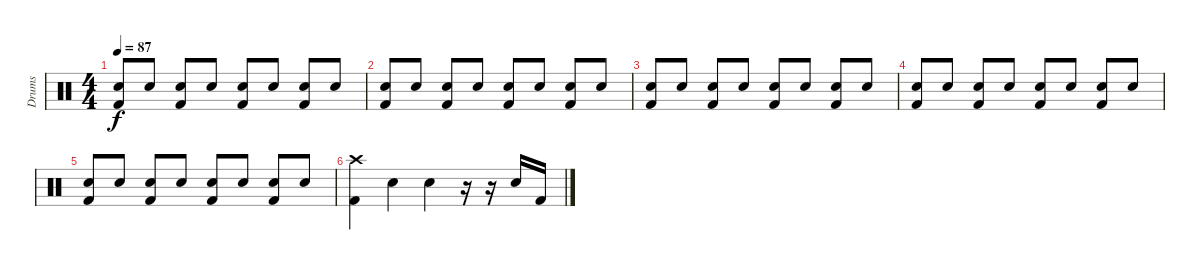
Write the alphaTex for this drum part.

\track ("Drums" "Drums") {instrument percussion}
\staff {score}
\articulation defaults
\ts (4 4)
\tempo 87
\clef neutral
\ks c
("Electric Snare (hit)" "Kick (hit) 2").8{dy f} "Electric Snare (hit)".8 ("Electric Snare (hit)" "Kick (hit) 2").8 "Electric Snare (hit)".8 ("Electric Snare (hit)" "Kick (hit) 2").8 "Electric Snare (hit)".8 ("Electric Snare (hit)" "Kick (hit) 2").8 "Electric Snare (hit)".8 |
("Electric Snare (hit)" "Kick (hit) 2").8 "Electric Snare (hit)".8 ("Electric Snare (hit)" "Kick (hit) 2").8 "Electric Snare (hit)".8 ("Electric Snare (hit)" "Kick (hit) 2").8 "Electric Snare (hit)".8 ("Electric Snare (hit)" "Kick (hit) 2").8 "Electric Snare (hit)".8 |
("Electric Snare (hit)" "Kick (hit) 2").8 "Electric Snare (hit)".8 ("Electric Snare (hit)" "Kick (hit) 2").8 "Electric Snare (hit)".8 ("Electric Snare (hit)" "Kick (hit) 2").8 "Electric Snare (hit)".8 ("Electric Snare (hit)" "Kick (hit) 2").8 "Electric Snare (hit)".8 |
("Electric Snare (hit)" "Kick (hit) 2").8 "Electric Snare (hit)".8 ("Electric Snare (hit)" "Kick (hit) 2").8 "Electric Snare (hit)".8 ("Electric Snare (hit)" "Kick (hit) 2").8 "Electric Snare (hit)".8 ("Electric Snare (hit)" "Kick (hit) 2").8 "Electric Snare (hit)".8 |
("Electric Snare (hit)" "Kick (hit) 2").8 "Electric Snare (hit)".8 ("Electric Snare (hit)" "Kick (hit) 2").8 "Electric Snare (hit)".8 ("Electric Snare (hit)" "Kick (hit) 2").8 "Electric Snare (hit)".8 ("Electric Snare (hit)" "Kick (hit) 2").8 "Electric Snare (hit)".8 |
("Crash high (hit)" "Kick (hit) 2").4{volume 0} "Electric Snare (hit)".4 "Electric Snare (hit)".4 r.16 r.16 "Electric Snare (hit)".16 "Kick (hit) 2".16
